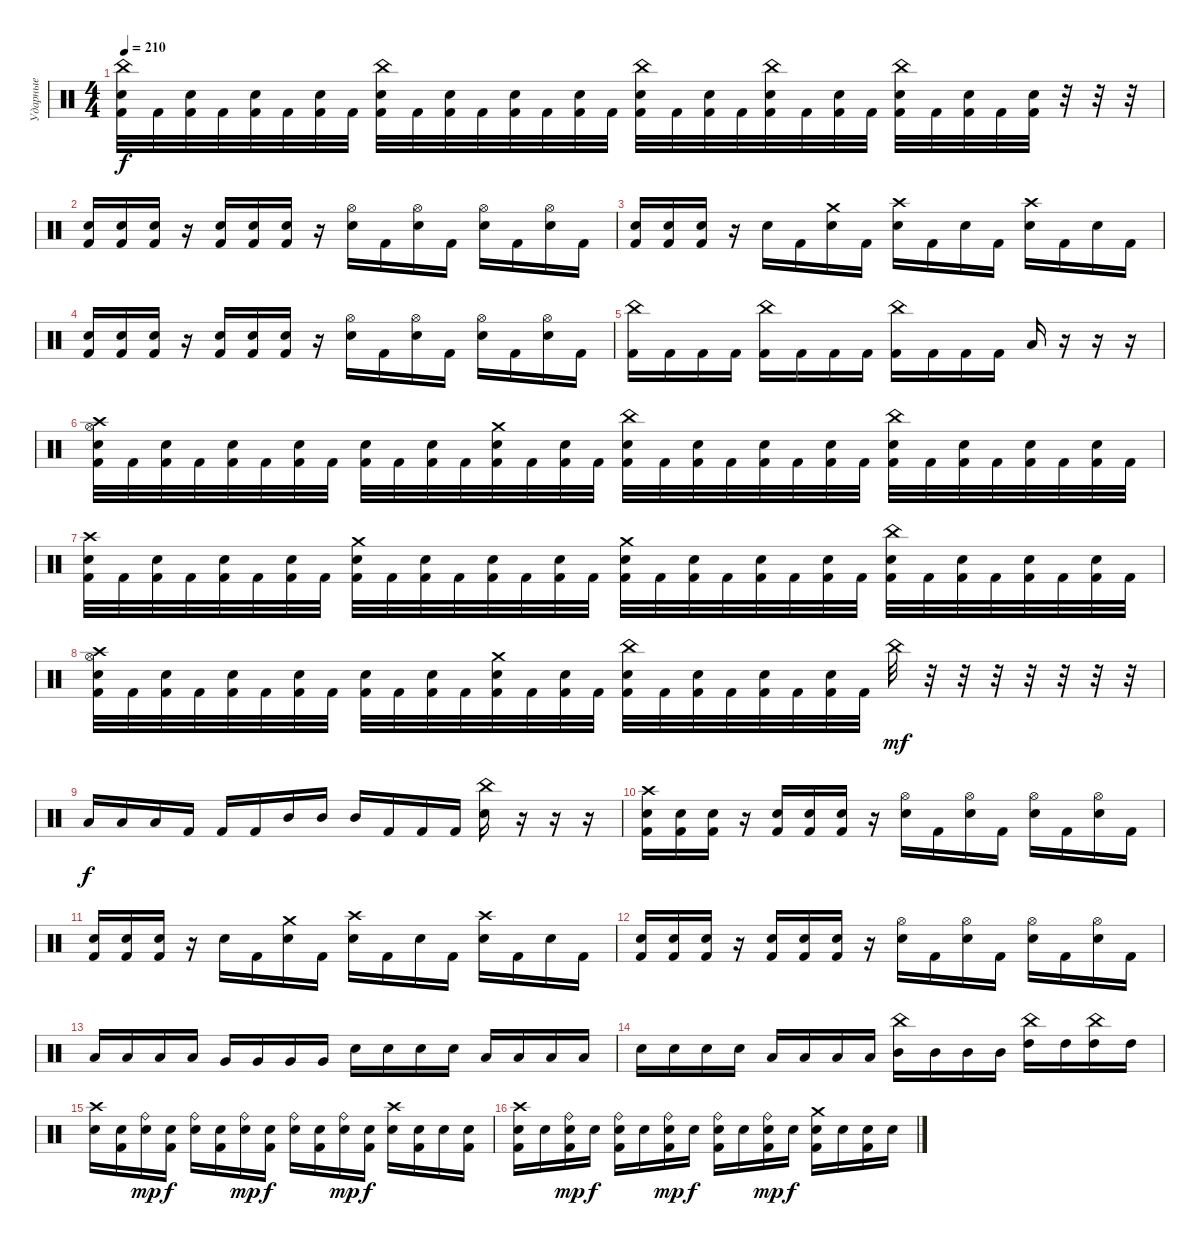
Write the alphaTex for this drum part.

\track ("Ударные" "Ударные") {instrument percussion}
\staff {score}
\articulation defaults
\ts (4 4)
\tempo 210
\clef neutral
\ks c
("Kick (hit) 2" "Electric Snare (hit)" "China (hit)").32{dy f} "Kick (hit) 2".32 ("Kick (hit) 2" "Electric Snare (hit)").32 "Kick (hit) 2".32 ("Kick (hit) 2" "Electric Snare (hit)").32 "Kick (hit) 2".32 ("Kick (hit) 2" "Electric Snare (hit)").32 "Kick (hit) 2".32 ("Kick (hit) 2" "Electric Snare (hit)" "China (hit)").32 "Kick (hit) 2".32 ("Kick (hit) 2" "Electric Snare (hit)").32 "Kick (hit) 2".32 ("Kick (hit) 2" "Electric Snare (hit)").32 "Kick (hit) 2".32 ("Kick (hit) 2" "Electric Snare (hit)").32 "Kick (hit) 2".32 ("Kick (hit) 2" "Electric Snare (hit)" "China (hit)").32 "Kick (hit) 2".32 ("Kick (hit) 2" "Electric Snare (hit)").32 "Kick (hit) 2".32 ("Kick (hit) 2" "Electric Snare (hit)" "China (hit)").32 "Kick (hit) 2".32 ("Kick (hit) 2" "Electric Snare (hit)").32 "Kick (hit) 2".32 ("Kick (hit) 2" "Electric Snare (hit)" "China (hit)").32 "Kick (hit) 2".32 ("Kick (hit) 2" "Electric Snare (hit)").32 "Kick (hit) 2".32 ("Kick (hit) 2" "Electric Snare (hit)").32 r.32 r.32 r.32 |
("Electric Snare (hit)" "Kick (hit) 2").16 ("Electric Snare (hit)" "Kick (hit) 2").16 ("Electric Snare (hit)" "Kick (hit) 2").16 r.16 ("Electric Snare (hit)" "Kick (hit) 2").16 ("Electric Snare (hit)" "Kick (hit) 2").16 ("Electric Snare (hit)" "Kick (hit) 2").16 r.16 ("Electric Snare (hit)" "Hi-Hat (open)").16 "Kick (hit) 2".16 ("Electric Snare (hit)" "Hi-Hat (open)").16 "Kick (hit) 2".16 ("Electric Snare (hit)" "Hi-Hat (open)").16 "Kick (hit) 2".16 ("Electric Snare (hit)" "Hi-Hat (open)").16 "Kick (hit) 2".16 |
("Electric Snare (hit)" "Kick (hit) 2").16 ("Electric Snare (hit)" "Kick (hit) 2").16 ("Electric Snare (hit)" "Kick (hit) 2").16 r.16 "Electric Snare (hit)".16 "Kick (hit) 2".16 ("Electric Snare (hit)" "Crash medium (hit)").16 "Kick (hit) 2".16 ("Electric Snare (hit)" "Crash high (hit)").16 "Kick (hit) 2".16 "Electric Snare (hit)".16 "Kick (hit) 2".16 ("Electric Snare (hit)" "Crash high (hit)").16 "Kick (hit) 2".16 "Electric Snare (hit)".16 "Kick (hit) 2".16 |
("Electric Snare (hit)" "Kick (hit) 2").16 ("Electric Snare (hit)" "Kick (hit) 2").16 ("Electric Snare (hit)" "Kick (hit) 2").16 r.16 ("Electric Snare (hit)" "Kick (hit) 2").16 ("Electric Snare (hit)" "Kick (hit) 2").16 ("Electric Snare (hit)" "Kick (hit) 2").16 r.16 ("Electric Snare (hit)" "Hi-Hat (open)").16 "Kick (hit) 2".16 ("Electric Snare (hit)" "Hi-Hat (open)").16 "Kick (hit) 2".16 ("Electric Snare (hit)" "Hi-Hat (open)").16 "Kick (hit) 2".16 ("Electric Snare (hit)" "Hi-Hat (open)").16 "Kick (hit) 2".16 |
("Kick (hit) 2" "China (hit)").16 "Kick (hit) 2".16 "Kick (hit) 2".16 "Kick (hit) 2".16 ("Kick (hit) 2" "China (hit)").16 "Kick (hit) 2".16 "Kick (hit) 2".16 "Kick (hit) 2".16 ("Kick (hit) 2" "China (hit)").16 "Kick (hit) 2".16 "Kick (hit) 2".16 "Kick (hit) 2".16 "Low Floor Tom (hit)".16 r.16 r.16 r.16 |
("Kick (hit) 2" "Electric Snare (hit)" "Hi-Hat (open)" "Crash high (hit)").32 "Kick (hit) 2".32 ("Kick (hit) 2" "Electric Snare (hit)").32 "Kick (hit) 2".32 ("Kick (hit) 2" "Electric Snare (hit)").32 "Kick (hit) 2".32 ("Kick (hit) 2" "Electric Snare (hit)").32 "Kick (hit) 2".32 ("Kick (hit) 2" "Electric Snare (hit)").32 "Kick (hit) 2".32 ("Kick (hit) 2" "Electric Snare (hit)").32 "Kick (hit) 2".32 ("Kick (hit) 2" "Electric Snare (hit)" "Crash medium (hit)").32 "Kick (hit) 2".32 ("Kick (hit) 2" "Electric Snare (hit)").32 "Kick (hit) 2".32 ("Kick (hit) 2" "Electric Snare (hit)" "China (hit)").32 "Kick (hit) 2".32 ("Kick (hit) 2" "Electric Snare (hit)").32 "Kick (hit) 2".32 ("Kick (hit) 2" "Electric Snare (hit)").32 "Kick (hit) 2".32 ("Kick (hit) 2" "Electric Snare (hit)").32 "Kick (hit) 2".32 ("Kick (hit) 2" "Electric Snare (hit)" "China (hit)").32 "Kick (hit) 2".32 ("Kick (hit) 2" "Electric Snare (hit)").32 "Kick (hit) 2".32 ("Kick (hit) 2" "Electric Snare (hit)").32 "Kick (hit) 2".32 ("Kick (hit) 2" "Electric Snare (hit)").32 "Kick (hit) 2".32 |
("Kick (hit) 2" "Electric Snare (hit)" "Crash high (hit)").32 "Kick (hit) 2".32 ("Kick (hit) 2" "Electric Snare (hit)").32 "Kick (hit) 2".32 ("Kick (hit) 2" "Electric Snare (hit)").32 "Kick (hit) 2".32 ("Kick (hit) 2" "Electric Snare (hit)").32 "Kick (hit) 2".32 ("Kick (hit) 2" "Electric Snare (hit)" "Crash medium (hit)").32 "Kick (hit) 2".32 ("Kick (hit) 2" "Electric Snare (hit)").32 "Kick (hit) 2".32 ("Kick (hit) 2" "Electric Snare (hit)").32 "Kick (hit) 2".32 ("Kick (hit) 2" "Electric Snare (hit)").32 "Kick (hit) 2".32 ("Kick (hit) 2" "Electric Snare (hit)" "Crash medium (hit)").32 "Kick (hit) 2".32 ("Kick (hit) 2" "Electric Snare (hit)").32 "Kick (hit) 2".32 ("Kick (hit) 2" "Electric Snare (hit)").32 "Kick (hit) 2".32 ("Kick (hit) 2" "Electric Snare (hit)").32 "Kick (hit) 2".32 ("Kick (hit) 2" "Electric Snare (hit)" "China (hit)").32 "Kick (hit) 2".32 ("Kick (hit) 2" "Electric Snare (hit)").32 "Kick (hit) 2".32 ("Kick (hit) 2" "Electric Snare (hit)").32 "Kick (hit) 2".32 ("Kick (hit) 2" "Electric Snare (hit)").32 "Kick (hit) 2".32 |
("Kick (hit) 2" "Electric Snare (hit)" "Hi-Hat (open)" "Crash high (hit)").32 "Kick (hit) 2".32 ("Kick (hit) 2" "Electric Snare (hit)").32 "Kick (hit) 2".32 ("Kick (hit) 2" "Electric Snare (hit)").32 "Kick (hit) 2".32 ("Kick (hit) 2" "Electric Snare (hit)").32 "Kick (hit) 2".32 ("Kick (hit) 2" "Electric Snare (hit)").32 "Kick (hit) 2".32 ("Kick (hit) 2" "Electric Snare (hit)").32 "Kick (hit) 2".32 ("Kick (hit) 2" "Electric Snare (hit)" "Crash medium (hit)").32 "Kick (hit) 2".32 ("Kick (hit) 2" "Electric Snare (hit)").32 "Kick (hit) 2".32 ("Kick (hit) 2" "Electric Snare (hit)" "China (hit)").32 "Kick (hit) 2".32 ("Kick (hit) 2" "Electric Snare (hit)").32 "Kick (hit) 2".32 ("Kick (hit) 2" "Electric Snare (hit)").32 "Kick (hit) 2".32 ("Kick (hit) 2" "Electric Snare (hit)").32 "Kick (hit) 2".32 "China (hit)".32{dy mf} r.32 r.32 r.32 r.32 r.32 r.32 r.32 |
"Low Tom (hit)".16{dy f} "Low Tom (hit)".16 "Low Tom (hit)".16 "Kick (hit) 2".16 "Kick (hit) 2".16 "Kick (hit) 2".16 "Mid Tom (hit)".16 "Mid Tom (hit)".16 "Mid Tom (hit)".16 "Kick (hit) 2".16 "Kick (hit) 2".16 "Kick (hit) 2".16 ("Electric Snare (hit)" "China (hit)").16 r.16 r.16 r.16 |
("Electric Snare (hit)" "Kick (hit) 2" "Crash high (hit)").16 ("Electric Snare (hit)" "Kick (hit) 2").16 ("Electric Snare (hit)" "Kick (hit) 2").16 r.16 ("Electric Snare (hit)" "Kick (hit) 2").16 ("Electric Snare (hit)" "Kick (hit) 2").16 ("Electric Snare (hit)" "Kick (hit) 2").16 r.16 ("Electric Snare (hit)" "Hi-Hat (open)").16 "Kick (hit) 2".16 ("Electric Snare (hit)" "Hi-Hat (open)").16 "Kick (hit) 2".16 ("Electric Snare (hit)" "Hi-Hat (open)").16 "Kick (hit) 2".16 ("Electric Snare (hit)" "Hi-Hat (open)").16 "Kick (hit) 2".16 |
("Electric Snare (hit)" "Kick (hit) 2").16 ("Electric Snare (hit)" "Kick (hit) 2").16 ("Electric Snare (hit)" "Kick (hit) 2").16 r.16 "Electric Snare (hit)".16 "Kick (hit) 2".16 ("Electric Snare (hit)" "Crash medium (hit)").16 "Kick (hit) 2".16 ("Electric Snare (hit)" "Crash high (hit)").16 "Kick (hit) 2".16 "Electric Snare (hit)".16 "Kick (hit) 2".16 ("Electric Snare (hit)" "Crash high (hit)").16 "Kick (hit) 2".16 "Electric Snare (hit)".16 "Kick (hit) 2".16 |
("Electric Snare (hit)" "Kick (hit) 2").16 ("Electric Snare (hit)" "Kick (hit) 2").16 ("Electric Snare (hit)" "Kick (hit) 2").16 r.16 ("Electric Snare (hit)" "Kick (hit) 2").16 ("Electric Snare (hit)" "Kick (hit) 2").16 ("Electric Snare (hit)" "Kick (hit) 2").16 r.16 ("Electric Snare (hit)" "Hi-Hat (open)").16 "Kick (hit) 2".16 ("Electric Snare (hit)" "Hi-Hat (open)").16 "Kick (hit) 2".16 ("Electric Snare (hit)" "Hi-Hat (open)").16 "Kick (hit) 2".16 ("Electric Snare (hit)" "Hi-Hat (open)").16 "Kick (hit) 2".16 |
"Low Tom (hit)".16 "Low Tom (hit)".16 "Low Tom (hit)".16 "Low Tom (hit)".16 "Very Low Tom (hit)".16 "Very Low Tom (hit)".16 "Very Low Tom (hit)".16 "Very Low Tom (hit)".16 "Electric Snare (hit)".16 "Electric Snare (hit)".16 "Electric Snare (hit)".16 "Electric Snare (hit)".16 "Low Tom (hit)".16 "Low Tom (hit)".16 "Low Tom (hit)".16 "Low Tom (hit)".16 |
"Electric Snare (hit)".16 "Electric Snare (hit)".16 "Electric Snare (hit)".16 "Electric Snare (hit)".16 "Low Tom (hit)".16 "Low Tom (hit)".16 "Low Tom (hit)".16 "Low Tom (hit)".16 ("Mid Tom (hit)" "China (hit)").16 "Mid Tom (hit)".16 "Mid Tom (hit)".16 "Mid Tom (hit)".16 ("High Tom (hit)" "China (hit)").16 "High Tom (hit)".16 ("High Tom (hit)" "China (hit)").16 "High Tom (hit)".16 |
("Electric Snare (hit)" "Crash high (hit)").16 ("Kick (hit) 2" "Electric Snare (hit)").16 ("Electric Snare (hit)" "Ride (bell)").16{dy mp} ("Kick (hit) 2" "Electric Snare (hit)").16{dy f} ("Electric Snare (hit)" "Ride (bell)").16 ("Kick (hit) 2" "Electric Snare (hit)").16 ("Electric Snare (hit)" "Ride (bell)").16{dy mp} ("Kick (hit) 2" "Electric Snare (hit)").16{dy f} ("Electric Snare (hit)" "Ride (bell)").16 ("Kick (hit) 2" "Electric Snare (hit)").16 ("Electric Snare (hit)" "Ride (bell)").16{dy mp} ("Kick (hit) 2" "Electric Snare (hit)").16{dy f} ("Electric Snare (hit)" "Crash high (hit)").16 ("Kick (hit) 2" "Electric Snare (hit)").16 "Electric Snare (hit)".16 ("Kick (hit) 2" "Electric Snare (hit)").16 |
("Kick (hit) 2" "Electric Snare (hit)" "Crash high (hit)").16 "Electric Snare (hit)".16 ("Kick (hit) 2" "Electric Snare (hit)" "Ride (bell)").16{dy mp} "Electric Snare (hit)".16{dy f} ("Kick (hit) 2" "Electric Snare (hit)" "Ride (bell)").16 "Electric Snare (hit)".16 ("Kick (hit) 2" "Electric Snare (hit)" "Ride (bell)").16{dy mp} "Electric Snare (hit)".16{dy f} ("Kick (hit) 2" "Electric Snare (hit)" "Ride (bell)").16 "Electric Snare (hit)".16 ("Kick (hit) 2" "Electric Snare (hit)" "Ride (bell)").16{dy mp} "Electric Snare (hit)".16{dy f} ("Kick (hit) 2" "Electric Snare (hit)" "Crash medium (hit)").16 "Electric Snare (hit)".16 ("Kick (hit) 2" "Electric Snare (hit)").16 "Electric Snare (hit)".16
